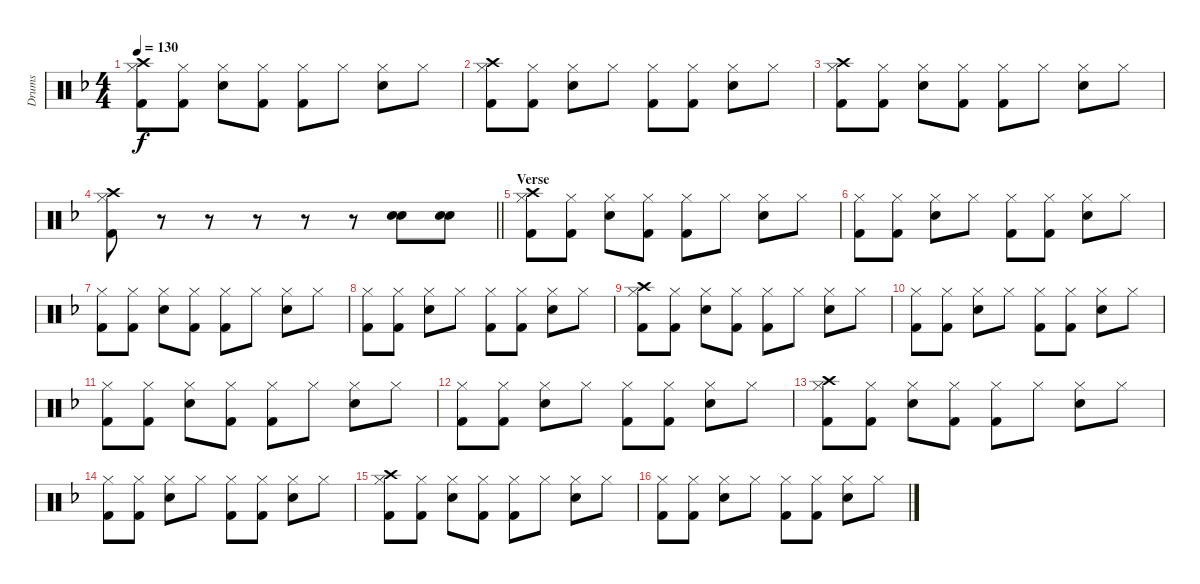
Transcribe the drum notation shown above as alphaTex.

\track ("Drums" "Drums") {instrument percussion}
\staff {score}
\articulation defaults
\ts (4 4)
\tempo 130
\clef neutral
\ks dminor
("Hi-Hat (closed)" "Kick (hit) 2" "Crash high (hit)").8{dy f} ("Hi-Hat (closed)" "Kick (hit) 2").8 ("Hi-Hat (closed)" "Snare (hit) 2").8 ("Hi-Hat (closed)" "Kick (hit) 2").8 ("Hi-Hat (closed)" "Kick (hit) 2").8 "Hi-Hat (closed)".8 ("Hi-Hat (closed)" "Snare (hit) 2").8 "Hi-Hat (closed)".8 |
("Hi-Hat (closed)" "Kick (hit) 2" "Crash high (hit)").8 ("Hi-Hat (closed)" "Kick (hit) 2").8 ("Hi-Hat (closed)" "Snare (hit) 2").8 "Hi-Hat (closed)".8 ("Hi-Hat (closed)" "Kick (hit) 2").8 ("Hi-Hat (closed)" "Kick (hit) 2").8 ("Hi-Hat (closed)" "Snare (hit) 2").8 "Hi-Hat (closed)".8 |
("Hi-Hat (closed)" "Kick (hit) 2" "Crash high (hit)").8 ("Hi-Hat (closed)" "Kick (hit) 2").8 ("Hi-Hat (closed)" "Snare (hit) 2").8 ("Hi-Hat (closed)" "Kick (hit) 2").8 ("Hi-Hat (closed)" "Kick (hit) 2").8 "Hi-Hat (closed)".8 ("Hi-Hat (closed)" "Snare (hit) 2").8 "Hi-Hat (closed)".8 |
\barLineRight lightlight
("Hi-Hat (closed)" "Kick (hit) 2" "Crash high (hit)").8 r.8 r.8 r.8 r.8 r.8 ("Snare (hit) 2" "Snare (hit) 2").8 ("Snare (hit) 2" "Snare (hit) 2").8 |
\section ("" "Verse")
("Hi-Hat (closed)" "Kick (hit) 2" "Crash high (hit)").8 ("Hi-Hat (closed)" "Kick (hit) 2").8 ("Hi-Hat (closed)" "Snare (hit) 2").8 ("Hi-Hat (closed)" "Kick (hit) 2").8 ("Hi-Hat (closed)" "Kick (hit) 2").8 "Hi-Hat (closed)".8 ("Hi-Hat (closed)" "Snare (hit) 2").8 "Hi-Hat (closed)".8 |
("Hi-Hat (closed)" "Kick (hit) 2").8 ("Hi-Hat (closed)" "Kick (hit) 2").8 ("Hi-Hat (closed)" "Snare (hit) 2").8 "Hi-Hat (closed)".8 ("Hi-Hat (closed)" "Kick (hit) 2").8 ("Hi-Hat (closed)" "Kick (hit) 2").8 ("Hi-Hat (closed)" "Snare (hit) 2").8 "Hi-Hat (closed)".8 |
("Hi-Hat (closed)" "Kick (hit) 2").8 ("Hi-Hat (closed)" "Kick (hit) 2").8 ("Hi-Hat (closed)" "Snare (hit) 2").8 ("Hi-Hat (closed)" "Kick (hit) 2").8 ("Hi-Hat (closed)" "Kick (hit) 2").8 "Hi-Hat (closed)".8 ("Hi-Hat (closed)" "Snare (hit) 2").8 "Hi-Hat (closed)".8 |
("Hi-Hat (closed)" "Kick (hit) 2").8 ("Hi-Hat (closed)" "Kick (hit) 2").8 ("Hi-Hat (closed)" "Snare (hit) 2").8 "Hi-Hat (closed)".8 ("Hi-Hat (closed)" "Kick (hit) 2").8 ("Hi-Hat (closed)" "Kick (hit) 2").8 ("Hi-Hat (closed)" "Snare (hit) 2").8 "Hi-Hat (closed)".8 |
("Hi-Hat (closed)" "Kick (hit) 2" "Crash high (hit)").8 ("Hi-Hat (closed)" "Kick (hit) 2").8 ("Hi-Hat (closed)" "Snare (hit) 2").8 ("Hi-Hat (closed)" "Kick (hit) 2").8 ("Hi-Hat (closed)" "Kick (hit) 2").8 "Hi-Hat (closed)".8 ("Hi-Hat (closed)" "Snare (hit) 2").8 "Hi-Hat (closed)".8 |
("Hi-Hat (closed)" "Kick (hit) 2").8 ("Hi-Hat (closed)" "Kick (hit) 2").8 ("Hi-Hat (closed)" "Snare (hit) 2").8 "Hi-Hat (closed)".8 ("Hi-Hat (closed)" "Kick (hit) 2").8 ("Hi-Hat (closed)" "Kick (hit) 2").8 ("Hi-Hat (closed)" "Snare (hit) 2").8 "Hi-Hat (closed)".8 |
("Hi-Hat (closed)" "Kick (hit) 2").8 ("Hi-Hat (closed)" "Kick (hit) 2").8 ("Hi-Hat (closed)" "Snare (hit) 2").8 ("Hi-Hat (closed)" "Kick (hit) 2").8 ("Hi-Hat (closed)" "Kick (hit) 2").8 "Hi-Hat (closed)".8 ("Hi-Hat (closed)" "Snare (hit) 2").8 "Hi-Hat (closed)".8 |
("Hi-Hat (closed)" "Kick (hit) 2").8 ("Hi-Hat (closed)" "Kick (hit) 2").8 ("Hi-Hat (closed)" "Snare (hit) 2").8 "Hi-Hat (closed)".8 ("Hi-Hat (closed)" "Kick (hit) 2").8 ("Hi-Hat (closed)" "Kick (hit) 2").8 ("Hi-Hat (closed)" "Snare (hit) 2").8 "Hi-Hat (closed)".8 |
("Hi-Hat (closed)" "Kick (hit) 2" "Crash high (hit)").8 ("Hi-Hat (closed)" "Kick (hit) 2").8 ("Hi-Hat (closed)" "Snare (hit) 2").8 ("Hi-Hat (closed)" "Kick (hit) 2").8 ("Hi-Hat (closed)" "Kick (hit) 2").8 "Hi-Hat (closed)".8 ("Hi-Hat (closed)" "Snare (hit) 2").8 "Hi-Hat (closed)".8 |
("Hi-Hat (closed)" "Kick (hit) 2").8 ("Hi-Hat (closed)" "Kick (hit) 2").8 ("Hi-Hat (closed)" "Snare (hit) 2").8 "Hi-Hat (closed)".8 ("Hi-Hat (closed)" "Kick (hit) 2").8 ("Hi-Hat (closed)" "Kick (hit) 2").8 ("Hi-Hat (closed)" "Snare (hit) 2").8 "Hi-Hat (closed)".8 |
("Hi-Hat (closed)" "Kick (hit) 2" "Crash high (hit)").8 ("Hi-Hat (closed)" "Kick (hit) 2").8 ("Hi-Hat (closed)" "Snare (hit) 2").8 ("Hi-Hat (closed)" "Kick (hit) 2").8 ("Hi-Hat (closed)" "Kick (hit) 2").8 "Hi-Hat (closed)".8 ("Hi-Hat (closed)" "Snare (hit) 2").8 "Hi-Hat (closed)".8 |
("Hi-Hat (closed)" "Kick (hit) 2").8 ("Hi-Hat (closed)" "Kick (hit) 2").8 ("Hi-Hat (closed)" "Snare (hit) 2").8 "Hi-Hat (closed)".8 ("Hi-Hat (closed)" "Kick (hit) 2").8 ("Hi-Hat (closed)" "Kick (hit) 2").8 ("Hi-Hat (closed)" "Snare (hit) 2").8 "Hi-Hat (closed)".8
